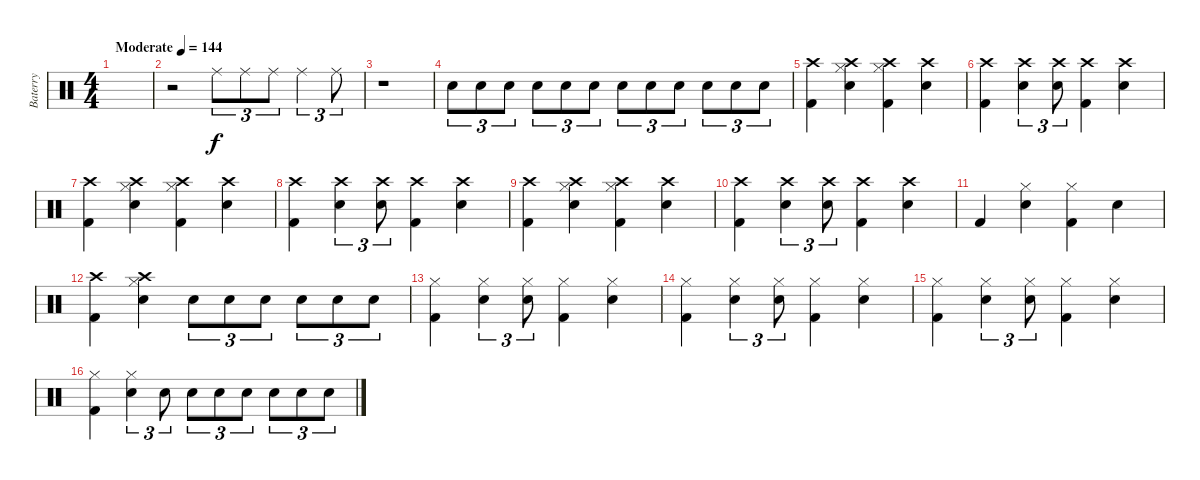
\track ("Baterry" "Baterry") {instrument percussion}
\staff {score}
\articulation defaults
\ts (4 4)
\tempo (144 "Moderate")
\clef neutral
\ks c
|
r.2 "Ride (middle)".8{tu (3 2)} "Ride (middle)".8{tu (3 2)} "Ride (middle)".8{tu (3 2)} "Ride (middle)".4{tu (3 2)} "Ride (middle)".8{tu (3 2)} |
r.1 |
"Electric Snare (hit)".8{tu (3 2)} "Electric Snare (hit)".8{tu (3 2)} "Electric Snare (hit)".8{tu (3 2)} "Electric Snare (hit)".8{tu (3 2)} "Electric Snare (hit)".8{tu (3 2)} "Electric Snare (hit)".8{tu (3 2)} "Electric Snare (hit)".8{tu (3 2)} "Electric Snare (hit)".8{tu (3 2)} "Electric Snare (hit)".8{tu (3 2)} "Electric Snare (hit)".8{tu (3 2)} "Electric Snare (hit)".8{tu (3 2)} "Electric Snare (hit)".8{tu (3 2)} |
("Crash high (hit)" "Kick (hit) 2").4 ("Hi-Hat (closed)" "Crash high (hit)" "Electric Snare (hit)").4 ("Hi-Hat (closed)" "Crash high (hit)" "Kick (hit) 2").4 ("Crash high (hit)" "Electric Snare (hit)").4 |
("Kick (hit) 2" "Crash high (hit)").4 ("Electric Snare (hit)" "Crash high (hit)").4{tu (3 2)} ("Electric Snare (hit)" "Crash high (hit)").8{tu (3 2)} ("Kick (hit) 2" "Crash high (hit)").4 ("Electric Snare (hit)" "Crash high (hit)").4 |
("Crash high (hit)" "Kick (hit) 2").4 ("Hi-Hat (closed)" "Crash high (hit)" "Electric Snare (hit)").4 ("Hi-Hat (closed)" "Crash high (hit)" "Kick (hit) 2").4 ("Crash high (hit)" "Electric Snare (hit)").4 |
("Kick (hit) 2" "Crash high (hit)").4 ("Electric Snare (hit)" "Crash high (hit)").4{tu (3 2)} ("Electric Snare (hit)" "Crash high (hit)").8{tu (3 2)} ("Kick (hit) 2" "Crash high (hit)").4 ("Electric Snare (hit)" "Crash high (hit)").4 |
("Crash high (hit)" "Kick (hit) 2").4 ("Hi-Hat (closed)" "Crash high (hit)" "Electric Snare (hit)").4 ("Hi-Hat (closed)" "Crash high (hit)" "Kick (hit) 2").4 ("Crash high (hit)" "Electric Snare (hit)").4 |
("Kick (hit) 2" "Crash high (hit)").4 ("Electric Snare (hit)" "Crash high (hit)").4{tu (3 2)} ("Electric Snare (hit)" "Crash high (hit)").8{tu (3 2)} ("Kick (hit) 2" "Crash high (hit)").4 ("Electric Snare (hit)" "Crash high (hit)").4 |
"Kick (hit) 2".4 ("Hi-Hat (closed)" "Electric Snare (hit)").4 ("Hi-Hat (closed)" "Kick (hit) 2").4 "Electric Snare (hit)".4 |
("Crash high (hit)" "Kick (hit) 2").4 ("Hi-Hat (closed)" "Crash high (hit)" "Electric Snare (hit)").4 "Electric Snare (hit)".8{tu (3 2)} "Electric Snare (hit)".8{tu (3 2)} "Electric Snare (hit)".8{tu (3 2)} "Electric Snare (hit)".8{tu (3 2)} "Electric Snare (hit)".8{tu (3 2)} "Electric Snare (hit)".8{tu (3 2)} |
("Kick (hit) 2" "Hi-Hat (closed)").4 ("Electric Snare (hit)" "Hi-Hat (closed)").4{tu (3 2)} ("Electric Snare (hit)" "Hi-Hat (closed)").8{tu (3 2)} ("Kick (hit) 2" "Hi-Hat (closed)").4 ("Electric Snare (hit)" "Hi-Hat (closed)").4 |
("Kick (hit) 2" "Hi-Hat (closed)").4 ("Electric Snare (hit)" "Hi-Hat (closed)").4{tu (3 2)} ("Electric Snare (hit)" "Hi-Hat (closed)").8{tu (3 2)} ("Kick (hit) 2" "Hi-Hat (closed)").4 ("Electric Snare (hit)" "Hi-Hat (closed)").4 |
("Kick (hit) 2" "Hi-Hat (closed)").4 ("Electric Snare (hit)" "Hi-Hat (closed)").4{tu (3 2)} ("Electric Snare (hit)" "Hi-Hat (closed)").8{tu (3 2)} ("Kick (hit) 2" "Hi-Hat (closed)").4 ("Electric Snare (hit)" "Hi-Hat (closed)").4 |
("Kick (hit) 2" "Hi-Hat (closed)").4 ("Electric Snare (hit)" "Hi-Hat (closed)").4{tu (3 2)} "Electric Snare (hit)".8{tu (3 2)} "Electric Snare (hit)".8{tu (3 2)} "Electric Snare (hit)".8{tu (3 2)} "Electric Snare (hit)".8{tu (3 2)} "Electric Snare (hit)".8{tu (3 2)} "Electric Snare (hit)".8{tu (3 2)} "Electric Snare (hit)".8{tu (3 2)}
